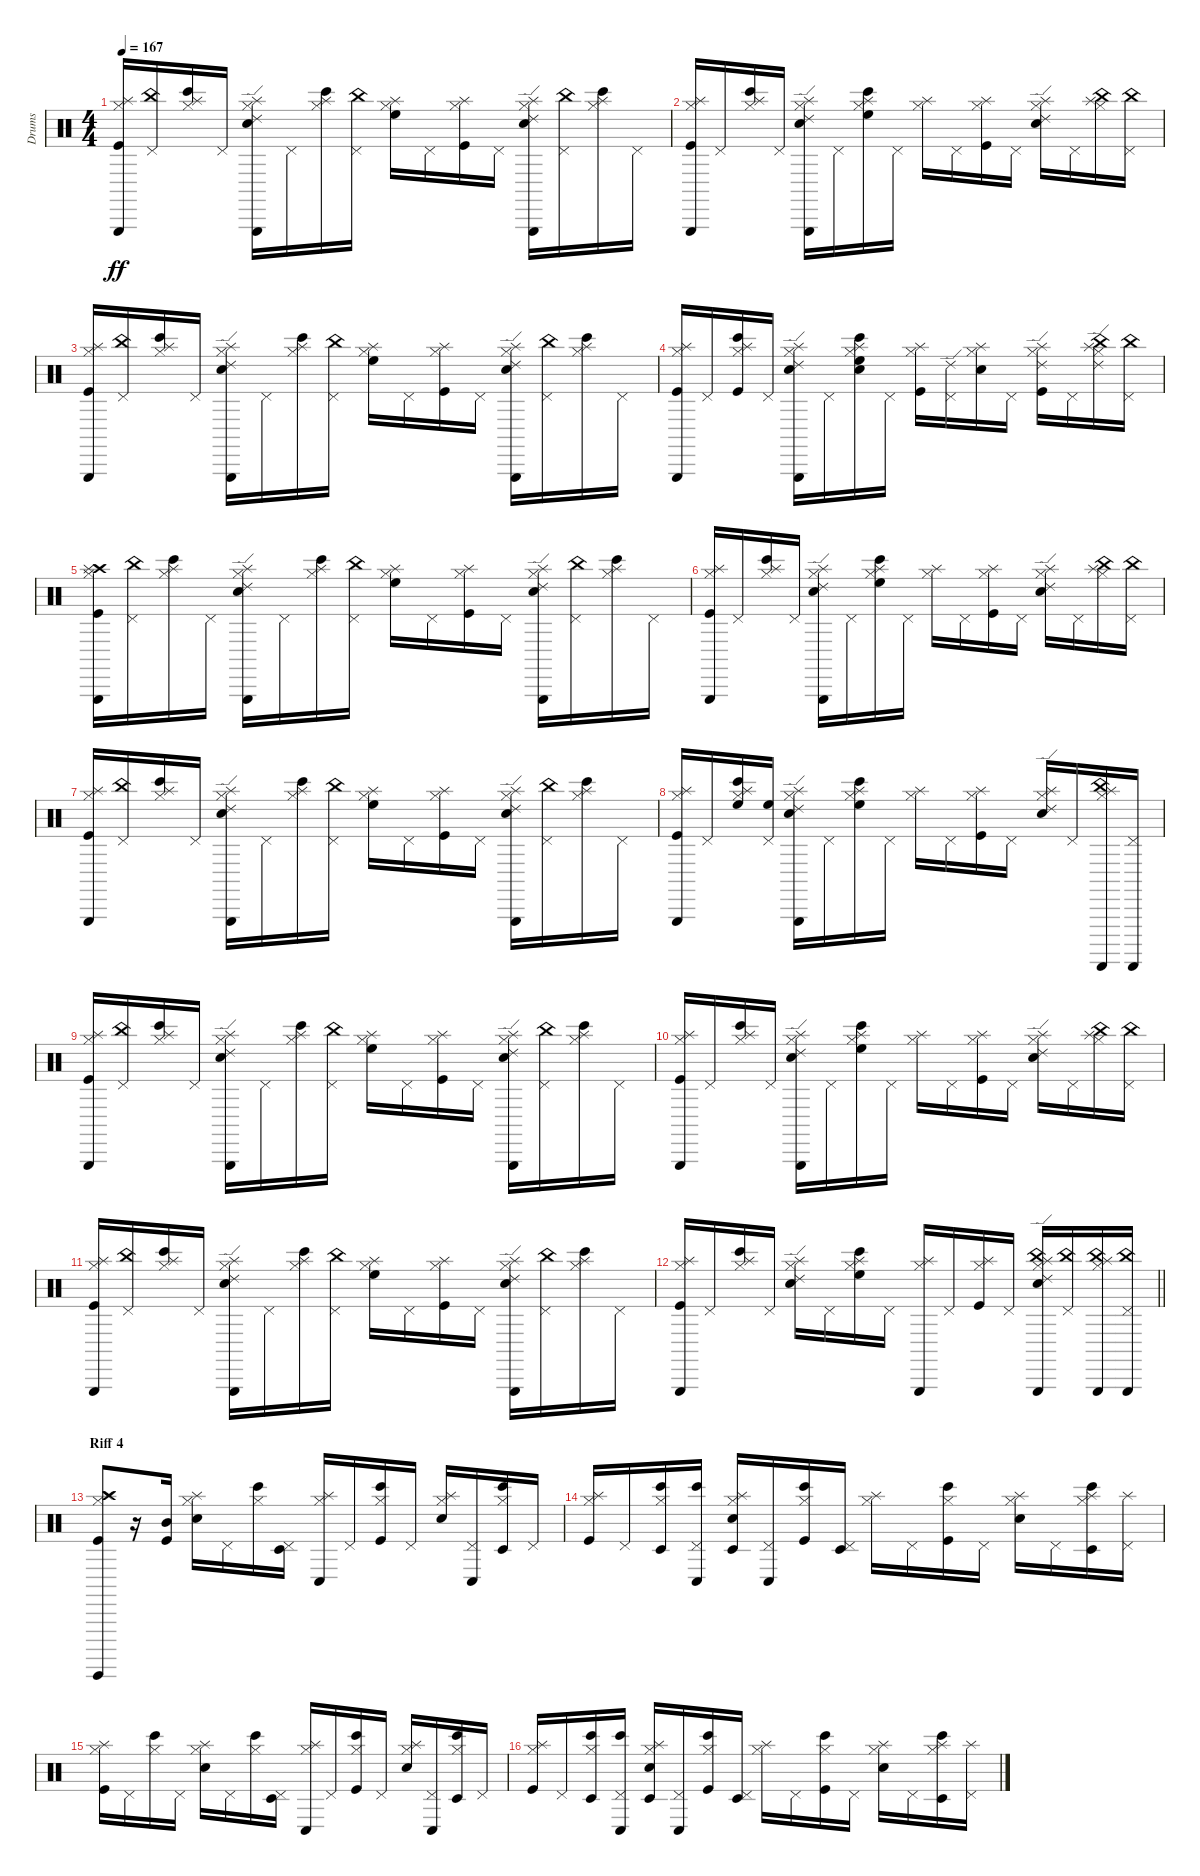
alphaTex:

\track ("Drums" "Drums") {instrument percussion}
\staff {score}
\articulation defaults
\ts (4 4)
\tempo 167
\clef neutral
\ks c
("Kick (hit)" "Hi-Hat (closed)" "Splash (hit)" "Triangle (hit)").16{dy ff} ("Pedal Hi-Hat (hit)" "China (hit)").16 ("Hi-Hat (closed)" "Splash (hit)" "Bongo High (hit)").16 "Pedal Hi-Hat (hit)".16 ("Electric Snare (hit)" "Hi-Hat (closed)" "Splash (hit)" "Ride (edge) 2" "Triangle (hit)").16 "Pedal Hi-Hat (hit)".16 ("Hi-Hat (closed)" "Splash (hit)" "Bongo High (hit)").16 ("Pedal Hi-Hat (hit)" "China (hit)").16 ("Hi-Hat (closed)" "High Floor Tom (hit)" "Splash (hit)").16 "Pedal Hi-Hat (hit)".16 ("Kick (hit)" "Hi-Hat (closed)" "Splash (hit)").16 "Pedal Hi-Hat (hit)".16 ("Electric Snare (hit)" "Hi-Hat (closed)" "Splash (hit)" "Ride (edge) 2" "Triangle (hit)").16 ("Pedal Hi-Hat (hit)" "China (hit)").16 ("Hi-Hat (closed)" "Splash (hit)" "Bongo High (hit)").16 "Pedal Hi-Hat (hit)".16 |
("Kick (hit)" "Hi-Hat (closed)" "Splash (hit)" "Triangle (hit)").16 "Pedal Hi-Hat (hit)".16 ("Hi-Hat (closed)" "Splash (hit)" "Bongo High (hit)").16 "Pedal Hi-Hat (hit)".16 ("Electric Snare (hit)" "Hi-Hat (closed)" "Splash (hit)" "Ride (edge) 2" "Triangle (hit)").16 "Pedal Hi-Hat (hit)".16 ("Hi-Hat (closed)" "High Floor Tom (hit)" "Splash (hit)" "Bongo High (hit)").16 "Pedal Hi-Hat (hit)".16 ("Hi-Hat (closed)" "Splash (hit)").16 "Pedal Hi-Hat (hit)".16 ("Kick (hit)" "Hi-Hat (closed)" "Splash (hit)").16 "Pedal Hi-Hat (hit)".16 ("Electric Snare (hit)" "Hi-Hat (closed)" "Splash (hit)" "Ride (edge) 2").16 "Pedal Hi-Hat (hit)".16 ("Hi-Hat (closed)" "China (hit)" "Splash (hit)").16 ("Pedal Hi-Hat (hit)" "China (hit)").16 |
("Kick (hit)" "Hi-Hat (closed)" "Splash (hit)" "Triangle (hit)").16 ("Pedal Hi-Hat (hit)" "China (hit)").16 ("Hi-Hat (closed)" "Splash (hit)" "Bongo High (hit)").16 "Pedal Hi-Hat (hit)".16 ("Electric Snare (hit)" "Hi-Hat (closed)" "Splash (hit)" "Ride (edge) 2" "Triangle (hit)").16 "Pedal Hi-Hat (hit)".16 ("Hi-Hat (closed)" "Splash (hit)" "Bongo High (hit)").16 ("Pedal Hi-Hat (hit)" "China (hit)").16 ("Hi-Hat (closed)" "High Floor Tom (hit)" "Splash (hit)").16 "Pedal Hi-Hat (hit)".16 ("Kick (hit)" "Hi-Hat (closed)" "Splash (hit)").16 "Pedal Hi-Hat (hit)".16 ("Electric Snare (hit)" "Hi-Hat (closed)" "Splash (hit)" "Ride (edge) 2" "Triangle (hit)").16 ("Pedal Hi-Hat (hit)" "China (hit)").16 ("Hi-Hat (closed)" "Splash (hit)" "Bongo High (hit)").16 "Pedal Hi-Hat (hit)".16 |
("Kick (hit)" "Hi-Hat (closed)" "Splash (hit)" "Triangle (hit)").16 "Pedal Hi-Hat (hit)".16 ("Kick (hit)" "Hi-Hat (closed)" "Splash (hit)" "Bongo High (hit)").16 "Pedal Hi-Hat (hit)".16 ("Electric Snare (hit)" "Hi-Hat (closed)" "Splash (hit)" "Ride (edge) 2" "Triangle (hit)").16 "Pedal Hi-Hat (hit)".16 ("Electric Snare (hit)" "Hi-Hat (closed)" "High Floor Tom (hit)" "Splash (hit)" "Bongo High (hit)").16 "Pedal Hi-Hat (hit)".16 ("Kick (hit)" "Hi-Hat (closed)" "Splash (hit)").16 ("Pedal Hi-Hat (hit)" "Ride (edge) 2").16 ("Electric Snare (hit)" "Hi-Hat (closed)" "Splash (hit)").16 "Pedal Hi-Hat (hit)".16 ("Kick (hit)" "Hi-Hat (closed)" "Splash (hit)" "Ride (edge) 2").16 "Pedal Hi-Hat (hit)".16 ("Hi-Hat (closed)" "China (hit)" "Splash (hit)" "Ride (edge) 2").16 ("Pedal Hi-Hat (hit)" "China (hit)").16 |
("Kick (hit)" "Hi-Hat (closed)" "Crash high (hit)" "Splash (hit)" "Triangle (hit)").16 ("Pedal Hi-Hat (hit)" "China (hit)").16 ("Hi-Hat (closed)" "Splash (hit)" "Bongo High (hit)").16 "Pedal Hi-Hat (hit)".16 ("Electric Snare (hit)" "Hi-Hat (closed)" "Splash (hit)" "Ride (edge) 2" "Triangle (hit)").16 "Pedal Hi-Hat (hit)".16 ("Hi-Hat (closed)" "Splash (hit)" "Bongo High (hit)").16 ("Pedal Hi-Hat (hit)" "China (hit)").16 ("Hi-Hat (closed)" "High Floor Tom (hit)" "Splash (hit)").16 "Pedal Hi-Hat (hit)".16 ("Kick (hit)" "Hi-Hat (closed)" "Splash (hit)").16 "Pedal Hi-Hat (hit)".16 ("Electric Snare (hit)" "Hi-Hat (closed)" "Splash (hit)" "Ride (edge) 2" "Triangle (hit)").16 ("Pedal Hi-Hat (hit)" "China (hit)").16 ("Hi-Hat (closed)" "Splash (hit)" "Bongo High (hit)").16 "Pedal Hi-Hat (hit)".16 |
("Kick (hit)" "Hi-Hat (closed)" "Splash (hit)" "Triangle (hit)").16 "Pedal Hi-Hat (hit)".16 ("Hi-Hat (closed)" "Splash (hit)" "Bongo High (hit)").16 "Pedal Hi-Hat (hit)".16 ("Electric Snare (hit)" "Hi-Hat (closed)" "Splash (hit)" "Ride (edge) 2" "Triangle (hit)").16 "Pedal Hi-Hat (hit)".16 ("Hi-Hat (closed)" "High Floor Tom (hit)" "Splash (hit)" "Bongo High (hit)").16 "Pedal Hi-Hat (hit)".16 ("Hi-Hat (closed)" "Splash (hit)").16 "Pedal Hi-Hat (hit)".16 ("Kick (hit)" "Hi-Hat (closed)" "Splash (hit)").16 "Pedal Hi-Hat (hit)".16 ("Electric Snare (hit)" "Hi-Hat (closed)" "Splash (hit)" "Ride (edge) 2").16 "Pedal Hi-Hat (hit)".16 ("Hi-Hat (closed)" "China (hit)" "Splash (hit)").16 ("Pedal Hi-Hat (hit)" "China (hit)").16 |
("Kick (hit)" "Hi-Hat (closed)" "Splash (hit)" "Triangle (hit)").16 ("Pedal Hi-Hat (hit)" "China (hit)").16 ("Hi-Hat (closed)" "Splash (hit)" "Bongo High (hit)").16 "Pedal Hi-Hat (hit)".16 ("Electric Snare (hit)" "Hi-Hat (closed)" "Splash (hit)" "Ride (edge) 2" "Triangle (hit)").16 "Pedal Hi-Hat (hit)".16 ("Hi-Hat (closed)" "Splash (hit)" "Bongo High (hit)").16 ("Pedal Hi-Hat (hit)" "China (hit)").16 ("Hi-Hat (closed)" "High Floor Tom (hit)" "Splash (hit)").16 "Pedal Hi-Hat (hit)".16 ("Kick (hit)" "Hi-Hat (closed)" "Splash (hit)").16 "Pedal Hi-Hat (hit)".16 ("Electric Snare (hit)" "Hi-Hat (closed)" "Splash (hit)" "Ride (edge) 2" "Triangle (hit)").16 ("Pedal Hi-Hat (hit)" "China (hit)").16 ("Hi-Hat (closed)" "Splash (hit)" "Bongo High (hit)").16 "Pedal Hi-Hat (hit)".16 |
("Kick (hit)" "Hi-Hat (closed)" "Splash (hit)" "Triangle (hit)").16 "Pedal Hi-Hat (hit)".16 ("Hi-Hat (closed)" "High Floor Tom (hit)" "Splash (hit)" "Bongo High (hit)").16 ("Pedal Hi-Hat (hit)" "High Floor Tom (hit)").16 ("Electric Snare (hit)" "Hi-Hat (closed)" "Splash (hit)" "Ride (edge) 2" "Triangle (hit)").16 "Pedal Hi-Hat (hit)".16 ("Hi-Hat (closed)" "High Floor Tom (hit)" "Splash (hit)" "Bongo High (hit)").16 "Pedal Hi-Hat (hit)".16 ("Hi-Hat (closed)" "Splash (hit)").16 "Pedal Hi-Hat (hit)".16 ("Kick (hit)" "Hi-Hat (closed)" "Splash (hit)").16 "Pedal Hi-Hat (hit)".16 ("Electric Snare (hit)" "Hi-Hat (closed)" "Splash (hit)" "Ride (edge) 2").16 "Pedal Hi-Hat (hit)".16 ("Hi-Hat (closed)" "China (hit)" "Splash (hit)" "Guiro (scrap-return)").16 ("Pedal Hi-Hat (hit)" "Guiro (scrap-return)").16 |
("Kick (hit)" "Hi-Hat (closed)" "Splash (hit)" "Triangle (hit)").16 ("Pedal Hi-Hat (hit)" "China (hit)").16 ("Hi-Hat (closed)" "Splash (hit)" "Bongo High (hit)").16 "Pedal Hi-Hat (hit)".16 ("Electric Snare (hit)" "Hi-Hat (closed)" "Splash (hit)" "Ride (edge) 2" "Triangle (hit)").16 "Pedal Hi-Hat (hit)".16 ("Hi-Hat (closed)" "Splash (hit)" "Bongo High (hit)").16 ("Pedal Hi-Hat (hit)" "China (hit)").16 ("Hi-Hat (closed)" "High Floor Tom (hit)" "Splash (hit)").16 "Pedal Hi-Hat (hit)".16 ("Kick (hit)" "Hi-Hat (closed)" "Splash (hit)").16 "Pedal Hi-Hat (hit)".16 ("Electric Snare (hit)" "Hi-Hat (closed)" "Splash (hit)" "Ride (edge) 2" "Triangle (hit)").16 ("Pedal Hi-Hat (hit)" "China (hit)").16 ("Hi-Hat (closed)" "Splash (hit)" "Bongo High (hit)").16 "Pedal Hi-Hat (hit)".16 |
("Kick (hit)" "Hi-Hat (closed)" "Splash (hit)" "Triangle (hit)").16 "Pedal Hi-Hat (hit)".16 ("Hi-Hat (closed)" "Splash (hit)" "Bongo High (hit)").16 "Pedal Hi-Hat (hit)".16 ("Electric Snare (hit)" "Hi-Hat (closed)" "Splash (hit)" "Ride (edge) 2" "Triangle (hit)").16 "Pedal Hi-Hat (hit)".16 ("Hi-Hat (closed)" "High Floor Tom (hit)" "Splash (hit)" "Bongo High (hit)").16 "Pedal Hi-Hat (hit)".16 ("Hi-Hat (closed)" "Splash (hit)").16 "Pedal Hi-Hat (hit)".16 ("Kick (hit)" "Hi-Hat (closed)" "Splash (hit)").16 "Pedal Hi-Hat (hit)".16 ("Electric Snare (hit)" "Hi-Hat (closed)" "Splash (hit)" "Ride (edge) 2").16 "Pedal Hi-Hat (hit)".16 ("Hi-Hat (closed)" "China (hit)" "Splash (hit)").16 ("Pedal Hi-Hat (hit)" "China (hit)").16 |
("Kick (hit)" "Hi-Hat (closed)" "Splash (hit)" "Triangle (hit)").16 ("Pedal Hi-Hat (hit)" "China (hit)").16 ("Hi-Hat (closed)" "Splash (hit)" "Bongo High (hit)").16 "Pedal Hi-Hat (hit)".16 ("Electric Snare (hit)" "Hi-Hat (closed)" "Splash (hit)" "Ride (edge) 2" "Triangle (hit)").16 "Pedal Hi-Hat (hit)".16 ("Hi-Hat (closed)" "Splash (hit)" "Bongo High (hit)").16 ("Pedal Hi-Hat (hit)" "China (hit)").16 ("Hi-Hat (closed)" "High Floor Tom (hit)" "Splash (hit)").16 "Pedal Hi-Hat (hit)".16 ("Kick (hit)" "Hi-Hat (closed)" "Splash (hit)").16 "Pedal Hi-Hat (hit)".16 ("Electric Snare (hit)" "Hi-Hat (closed)" "Splash (hit)" "Ride (edge) 2" "Triangle (hit)").16 ("Pedal Hi-Hat (hit)" "China (hit)").16 ("Hi-Hat (closed)" "Splash (hit)" "Bongo High (hit)").16 "Pedal Hi-Hat (hit)".16 |
\barLineRight lightlight
("Kick (hit)" "Hi-Hat (closed)" "Splash (hit)" "Triangle (hit)").16 "Pedal Hi-Hat (hit)".16 ("Hi-Hat (closed)" "Splash (hit)" "Bongo High (hit)").16 "Pedal Hi-Hat (hit)".16 ("Electric Snare (hit)" "Hi-Hat (closed)" "Splash (hit)" "Ride (edge) 2").16 "Pedal Hi-Hat (hit)".16 ("Hi-Hat (closed)" "High Floor Tom (hit)" "Splash (hit)" "Bongo High (hit)").16 "Pedal Hi-Hat (hit)".16 ("Hi-Hat (closed)" "Splash (hit)" "Triangle (hit)").16 "Pedal Hi-Hat (hit)".16 ("Kick (hit)" "Hi-Hat (closed)" "Splash (hit)").16 "Pedal Hi-Hat (hit)".16 ("Electric Snare (hit)" "Hi-Hat (closed)" "China (hit)" "Splash (hit)" "Ride (edge) 2" "Triangle (hit)").16 ("Pedal Hi-Hat (hit)" "China (hit)").16 ("Hi-Hat (closed)" "China (hit)" "Splash (hit)" "Triangle (hit)").16 ("Pedal Hi-Hat (hit)" "China (hit)" "Triangle (hit)").16 |
\section ("" "Riff 4")
("Kick (hit)" "Hi-Hat (closed)" "Crash high (hit)" "Splash (hit)" "Guiro (hit)").8 r.16 ("Kick (hit)" "Mid Tom (hit)").16 ("Electric Snare (hit)" "Hi-Hat (closed)" "Splash (hit)").16 "Pedal Hi-Hat (hit)".16 ("Hi-Hat (closed)" "Bongo High (hit)").16 ("Pedal Hi-Hat (hit)" "Timbale low (hit)").16 ("Hi-Hat (closed)" "Splash (hit)" "Conga low (hit)").16 "Pedal Hi-Hat (hit)".16 ("Kick (hit)" "Hi-Hat (closed)" "Bongo High (hit)").16 "Pedal Hi-Hat (hit)".16 ("Electric Snare (hit)" "Hi-Hat (closed)" "Splash (hit)").16 ("Pedal Hi-Hat (hit)" "Conga low (hit)").16 ("Hi-Hat (closed)" "Bongo High (hit)" "Timbale low (hit)").16 "Pedal Hi-Hat (hit)".16 |
("Kick (hit)" "Hi-Hat (closed)" "Splash (hit)").16 "Pedal Hi-Hat (hit)".16 ("Hi-Hat (closed)" "Bongo High (hit)" "Timbale low (hit)").16 ("Pedal Hi-Hat (hit)" "Bongo High (hit)" "Conga low (hit)").16 ("Electric Snare (hit)" "Hi-Hat (closed)" "Splash (hit)" "Timbale low (hit)").16 ("Pedal Hi-Hat (hit)" "Conga low (hit)").16 ("Kick (hit)" "Hi-Hat (closed)" "Bongo High (hit)").16 ("Pedal Hi-Hat (hit)" "Timbale low (hit)").16 ("Hi-Hat (closed)" "Splash (hit)").16 "Pedal Hi-Hat (hit)".16 ("Kick (hit)" "Hi-Hat (closed)" "Bongo High (hit)").16 "Pedal Hi-Hat (hit)".16 ("Electric Snare (hit)" "Hi-Hat (closed)" "Splash (hit)").16 "Pedal Hi-Hat (hit)".16 ("Hi-Hat (closed)" "Splash (hit)" "Bongo High (hit)" "Timbale low (hit)").16 ("Pedal Hi-Hat (hit)" "Splash (hit)").16 |
("Kick (hit)" "Hi-Hat (closed)" "Splash (hit)").16 "Pedal Hi-Hat (hit)".16 ("Hi-Hat (closed)" "Bongo High (hit)").16 "Pedal Hi-Hat (hit)".16 ("Electric Snare (hit)" "Hi-Hat (closed)" "Splash (hit)").16 "Pedal Hi-Hat (hit)".16 ("Hi-Hat (closed)" "Bongo High (hit)").16 ("Pedal Hi-Hat (hit)" "Timbale low (hit)").16 ("Hi-Hat (closed)" "Splash (hit)" "Conga low (hit)").16 "Pedal Hi-Hat (hit)".16 ("Kick (hit)" "Hi-Hat (closed)" "Bongo High (hit)").16 "Pedal Hi-Hat (hit)".16 ("Electric Snare (hit)" "Hi-Hat (closed)" "Splash (hit)").16 ("Pedal Hi-Hat (hit)" "Conga low (hit)").16 ("Hi-Hat (closed)" "Bongo High (hit)" "Timbale low (hit)").16 "Pedal Hi-Hat (hit)".16 |
("Kick (hit)" "Hi-Hat (closed)" "Splash (hit)").16 "Pedal Hi-Hat (hit)".16 ("Hi-Hat (closed)" "Bongo High (hit)" "Timbale low (hit)").16 ("Pedal Hi-Hat (hit)" "Bongo High (hit)" "Conga low (hit)").16 ("Electric Snare (hit)" "Hi-Hat (closed)" "Splash (hit)" "Timbale low (hit)").16 ("Pedal Hi-Hat (hit)" "Conga low (hit)").16 ("Kick (hit)" "Hi-Hat (closed)" "Bongo High (hit)").16 ("Pedal Hi-Hat (hit)" "Timbale low (hit)").16 ("Hi-Hat (closed)" "Splash (hit)").16 "Pedal Hi-Hat (hit)".16 ("Kick (hit)" "Hi-Hat (closed)" "Bongo High (hit)").16 "Pedal Hi-Hat (hit)".16 ("Electric Snare (hit)" "Hi-Hat (closed)" "Splash (hit)").16 "Pedal Hi-Hat (hit)".16 ("Hi-Hat (closed)" "Splash (hit)" "Bongo High (hit)" "Timbale low (hit)").16 ("Pedal Hi-Hat (hit)" "Splash (hit)").16
